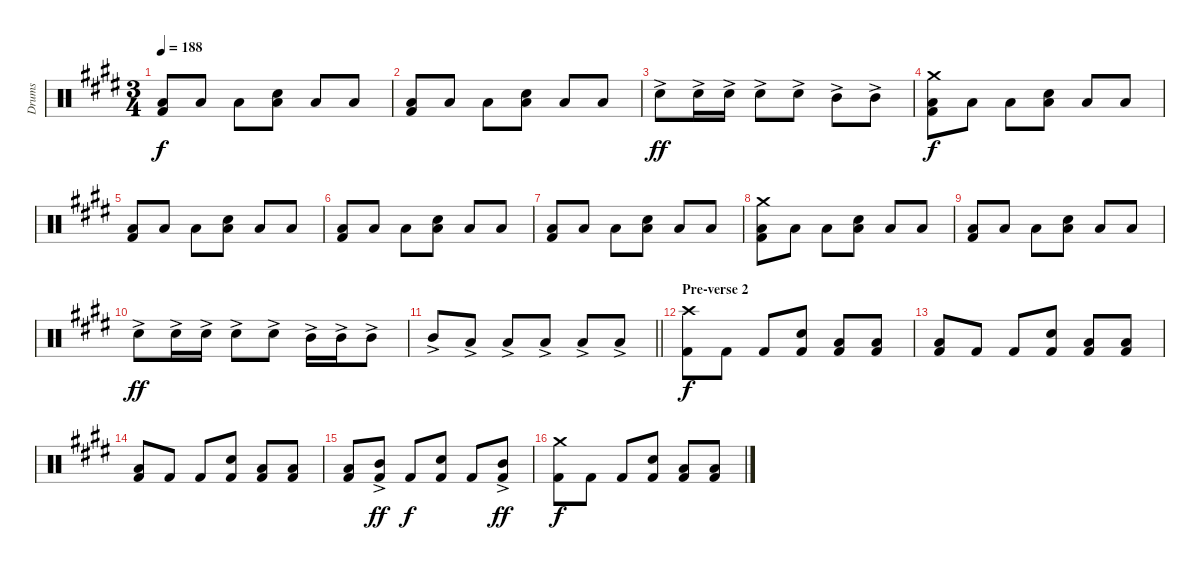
\track ("Drums" "Drums") {instrument percussion}
\staff {score}
\articulation defaults
\ts (3 4)
\tempo 188
\clef neutral
\ks e
("Low Floor Tom (hit)" "Kick (hit) 2").8{dy f} "Low Floor Tom (hit)".8 "Low Floor Tom (hit)".8 ("Electric Snare (hit)" "Low Floor Tom (hit)").8 "Low Floor Tom (hit)".8 "Low Floor Tom (hit)".8 |
("Low Floor Tom (hit)" "Kick (hit) 2").8 "Low Floor Tom (hit)".8 "Low Floor Tom (hit)".8 ("Electric Snare (hit)" "Low Floor Tom (hit)").8 "Low Floor Tom (hit)".8 "Low Floor Tom (hit)".8 |
"Electric Snare (hit)"{ac}.8{dy ff} "Electric Snare (hit)"{ac}.16 "Electric Snare (hit)"{ac}.16 "Electric Snare (hit)"{ac}.8 "Electric Snare (hit)"{ac}.8 "Mid Tom (hit)"{ac}.8 "Mid Tom (hit)"{ac}.8 |
("Crash medium (hit)" "Low Floor Tom (hit)" "Kick (hit) 2").8{dy f} "Low Floor Tom (hit)".8 "Low Floor Tom (hit)".8 ("Electric Snare (hit)" "Low Floor Tom (hit)").8 "Low Floor Tom (hit)".8 "Low Floor Tom (hit)".8 |
("Low Floor Tom (hit)" "Kick (hit) 2").8 "Low Floor Tom (hit)".8 "Low Floor Tom (hit)".8 ("Electric Snare (hit)" "Low Floor Tom (hit)").8 "Low Floor Tom (hit)".8 "Low Floor Tom (hit)".8 |
("Low Floor Tom (hit)" "Kick (hit) 2").8 "Low Floor Tom (hit)".8 "Low Floor Tom (hit)".8 ("Electric Snare (hit)" "Low Floor Tom (hit)").8 "Low Floor Tom (hit)".8 "Low Floor Tom (hit)".8 |
("Low Floor Tom (hit)" "Kick (hit) 2").8 "Low Floor Tom (hit)".8 "Low Floor Tom (hit)".8 ("Electric Snare (hit)" "Low Floor Tom (hit)").8 "Low Floor Tom (hit)".8 "Low Floor Tom (hit)".8 |
("Crash medium (hit)" "Low Floor Tom (hit)" "Kick (hit) 2").8 "Low Floor Tom (hit)".8 "Low Floor Tom (hit)".8 ("Electric Snare (hit)" "Low Floor Tom (hit)").8 "Low Floor Tom (hit)".8 "Low Floor Tom (hit)".8 |
("Low Floor Tom (hit)" "Kick (hit) 2").8 "Low Floor Tom (hit)".8 "Low Floor Tom (hit)".8 ("Electric Snare (hit)" "Low Floor Tom (hit)").8 "Low Floor Tom (hit)".8 "Low Floor Tom (hit)".8 |
"Electric Snare (hit)"{ac}.8{dy ff} "Electric Snare (hit)"{ac}.16 "Electric Snare (hit)"{ac}.16 "Electric Snare (hit)"{ac}.8 "Electric Snare (hit)"{ac}.8 "Mid Tom (hit)"{ac}.16 "Mid Tom (hit)"{ac}.16 "Mid Tom (hit)"{ac}.8 |
\barLineRight lightlight "Mid Tom (hit)"{ac}.8 "Low Tom (hit)"{ac}.8 "Low Tom (hit)"{ac}.8 "Low Floor Tom (hit)"{ac}.8 "Low Floor Tom (hit)"{ac}.8 "Low Floor Tom (hit)"{ac}.8
|
\section ("" "Pre-verse 2")
("Crash high (hit)" "Kick (hit) 2").8{dy f} "Kick (hit) 2".8 "Kick (hit) 2".8 ("Electric Snare (hit)" "Kick (hit) 2").8 ("Low Floor Tom (hit)" "Kick (hit) 2").8 ("Low Floor Tom (hit)" "Kick (hit) 2").8 |
("Low Floor Tom (hit)" "Kick (hit) 2").8 "Kick (hit) 2".8 "Kick (hit) 2".8 ("Electric Snare (hit)" "Kick (hit) 2").8 ("Low Floor Tom (hit)" "Kick (hit) 2").8 ("Low Floor Tom (hit)" "Kick (hit) 2").8 |
("Low Floor Tom (hit)" "Kick (hit) 2").8 "Kick (hit) 2".8 "Kick (hit) 2".8 ("Electric Snare (hit)" "Kick (hit) 2").8 ("Low Floor Tom (hit)" "Kick (hit) 2").8 ("Low Floor Tom (hit)" "Kick (hit) 2").8 |
("Low Floor Tom (hit)" "Kick (hit) 2").8 ("Mid Tom (hit)"{ac} "Kick (hit) 2").8{dy ff} "Kick (hit) 2".8{dy f} ("Electric Snare (hit)" "Kick (hit) 2").8 "Kick (hit) 2".8 ("Mid Tom (hit)"{ac} "Kick (hit) 2").8{dy ff} |
("Crash medium (hit)" "Kick (hit) 2").8{dy f} "Kick (hit) 2".8 "Kick (hit) 2".8 ("Electric Snare (hit)" "Kick (hit) 2").8 ("Low Floor Tom (hit)" "Kick (hit) 2").8 ("Low Floor Tom (hit)" "Kick (hit) 2").8
